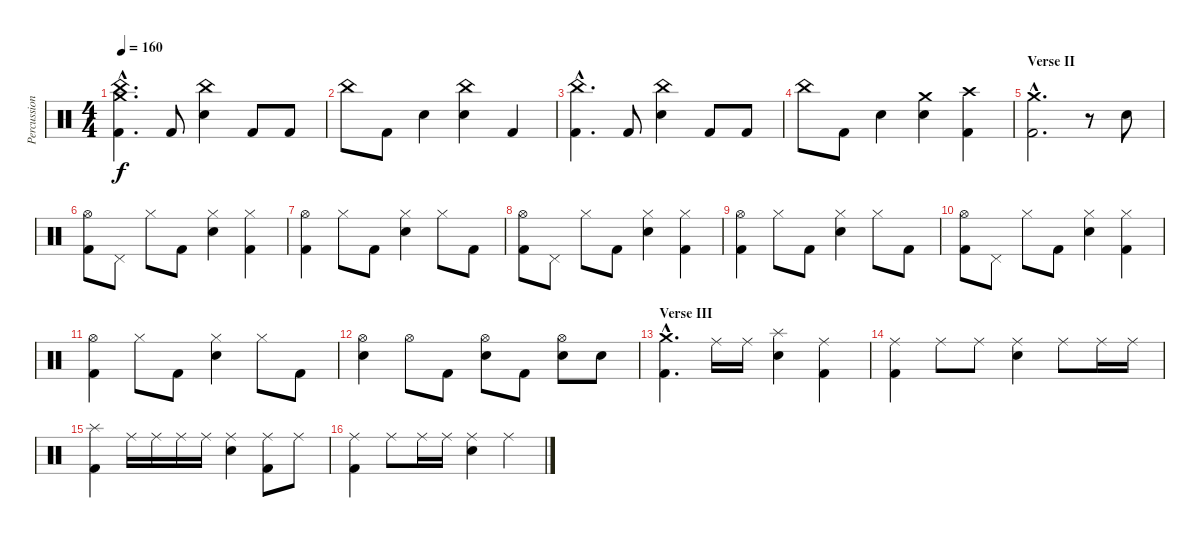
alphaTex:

\track ("Percussion" "Percussion") {instrument percussion}
\staff {score}
\articulation defaults
\ts (4 4)
\tempo 160
\clef neutral
\ks c
("China (hit)"{hac} "Crash medium (hit)"{hac} "Kick (hit) 2"{hac}).4{d dy f} "Kick (hit) 2".8 ("China (hit)" "Electric Snare (hit)").4 "Kick (hit) 2".8 "Kick (hit) 2".8 |
"China (hit)".8 "Kick (hit) 2".8 "Electric Snare (hit)".4 ("China (hit)" "Electric Snare (hit)").4 "Kick (hit) 2".4 |
("China (hit)"{hac} "Kick (hit) 2"{hac}).4{d} "Kick (hit) 2".8 ("China (hit)" "Electric Snare (hit)").4 "Kick (hit) 2".8 "Kick (hit) 2".8 |
"China (hit)".8 "Kick (hit) 2".8 "Electric Snare (hit)".4 ("Crash medium (hit)" "Electric Snare (hit)").4 ("Crash high (hit)" "Kick (hit) 2").4 |
\section ("" "Verse II")
("Crash medium (hit)"{hac} "Kick (hit) 2"{hac}).2{d} r.8 "Electric Snare (hit)".8 |
("Hi-Hat (open)" "Kick (hit) 2").8 "Pedal Hi-Hat (hit)".8 "Hi-Hat (closed)".8 "Kick (hit) 2".8 ("Hi-Hat (closed)" "Electric Snare (hit)").4 ("Hi-Hat (closed)" "Kick (hit) 2").4 |
("Hi-Hat (open)" "Kick (hit) 2").4 "Hi-Hat (closed)".8 "Kick (hit) 2".8 ("Hi-Hat (closed)" "Electric Snare (hit)").4 "Hi-Hat (closed)".8 "Kick (hit) 2".8 |
("Hi-Hat (open)" "Kick (hit) 2").8 "Pedal Hi-Hat (hit)".8 "Hi-Hat (closed)".8 "Kick (hit) 2".8 ("Hi-Hat (closed)" "Electric Snare (hit)").4 ("Hi-Hat (closed)" "Kick (hit) 2").4 |
("Hi-Hat (open)" "Kick (hit) 2").4 "Hi-Hat (closed)".8 "Kick (hit) 2".8 ("Hi-Hat (closed)" "Electric Snare (hit)").4 "Hi-Hat (closed)".8 "Kick (hit) 2".8 |
("Hi-Hat (open)" "Kick (hit) 2").8 "Pedal Hi-Hat (hit)".8 "Hi-Hat (closed)".8 "Kick (hit) 2".8 ("Hi-Hat (closed)" "Electric Snare (hit)").4 ("Hi-Hat (closed)" "Kick (hit) 2").4 |
("Hi-Hat (open)" "Kick (hit) 2").4 "Hi-Hat (closed)".8 "Kick (hit) 2".8 ("Hi-Hat (closed)" "Electric Snare (hit)").4 "Hi-Hat (closed)".8 "Kick (hit) 2".8 |
("Hi-Hat (open)" "Electric Snare (hit)").4 "Hi-Hat (open)".8 "Kick (hit) 2".8 ("Hi-Hat (open)" "Electric Snare (hit)").8 "Kick (hit) 2".8 ("Hi-Hat (open)" "Electric Snare (hit)").8 "Electric Snare (hit)".8 |
\section ("" "Verse III")
("Crash medium (hit)"{hac} "Kick (hit) 2"{hac}).4{d} "Ride (middle)".16 "Ride (middle)".16 ("Splash (hit)" "Electric Snare (hit)").4 ("Ride (middle)" "Kick (hit) 2").4 |
("Ride (middle)" "Kick (hit) 2").4 "Ride (middle)".8 "Ride (middle)".8 ("Ride (middle)" "Electric Snare (hit)").4 "Ride (middle)".8 "Ride (middle)".16 "Ride (middle)".16 |
("Splash (hit)" "Kick (hit) 2").4 "Ride (middle)".16 "Ride (middle)".16 "Ride (middle)".16 "Ride (middle)".16 ("Ride (middle)" "Electric Snare (hit)").4 ("Ride (middle)" "Kick (hit) 2").8 "Ride (middle)".8 |
("Ride (middle)" "Kick (hit) 2").4 "Ride (middle)".8 "Ride (middle)".16 "Ride (middle)".16 ("Ride (middle)" "Electric Snare (hit)").4 "Ride (middle)".4
